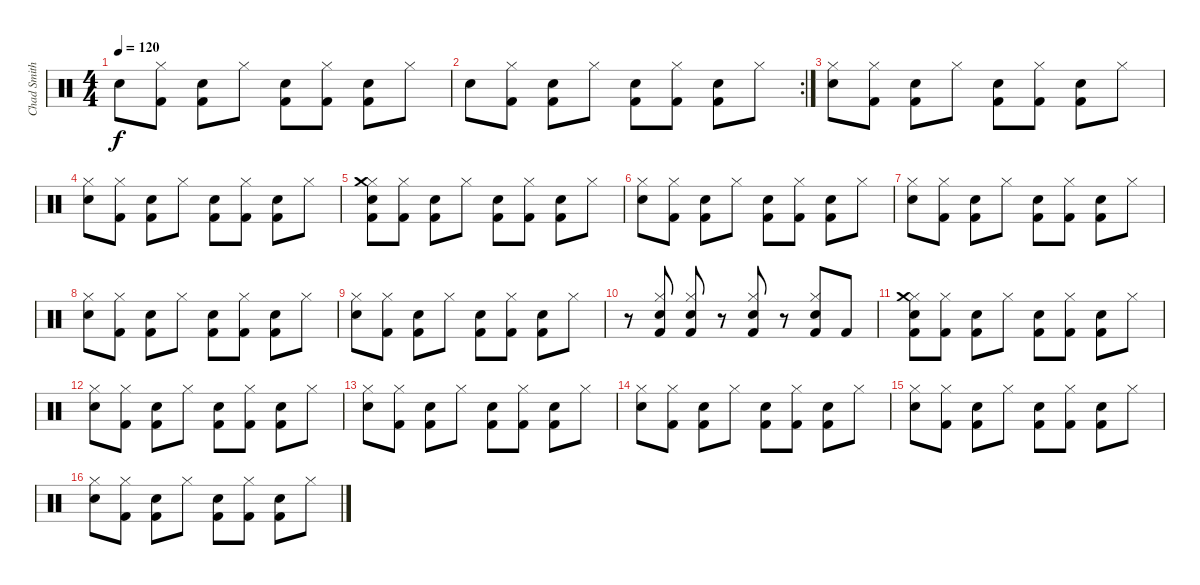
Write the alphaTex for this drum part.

\track ("Chad Smith" "Chad Smith") {instrument percussion}
\staff {score}
\articulation defaults
\ts (4 4)
\tempo 120
\clef neutral
\ks c "Electric Snare (hit)".8{dy f}
("Hi-Hat (closed)" "Kick (hit) 2").8 ("Electric Snare (hit)" "Kick (hit) 2").8 "Hi-Hat (closed)".8 ("Electric Snare (hit)" "Kick (hit) 2").8 ("Hi-Hat (closed)" "Kick (hit) 2").8 ("Electric Snare (hit)" "Kick (hit) 2").8 "Hi-Hat (closed)".8 |
\rc 2 "Electric Snare (hit)".8
("Hi-Hat (closed)" "Kick (hit) 2").8 ("Electric Snare (hit)" "Kick (hit) 2").8 "Hi-Hat (closed)".8 ("Electric Snare (hit)" "Kick (hit) 2").8 ("Hi-Hat (closed)" "Kick (hit) 2").8 ("Electric Snare (hit)" "Kick (hit) 2").8 "Hi-Hat (closed)".8 |
("Electric Snare (hit)" "Hi-Hat (closed)").8 ("Hi-Hat (closed)" "Kick (hit) 2").8 ("Electric Snare (hit)" "Kick (hit) 2").8 "Hi-Hat (closed)".8 ("Electric Snare (hit)" "Kick (hit) 2").8 ("Hi-Hat (closed)" "Kick (hit) 2").8 ("Electric Snare (hit)" "Kick (hit) 2").8 "Hi-Hat (closed)".8 |
("Electric Snare (hit)" "Hi-Hat (closed)").8 ("Hi-Hat (closed)" "Kick (hit) 2").8 ("Electric Snare (hit)" "Kick (hit) 2").8 "Hi-Hat (closed)".8 ("Electric Snare (hit)" "Kick (hit) 2").8 ("Hi-Hat (closed)" "Kick (hit) 2").8 ("Electric Snare (hit)" "Kick (hit) 2").8 "Hi-Hat (closed)".8 |
("Electric Snare (hit)" "Hi-Hat (closed)" "Crash medium (hit)" "Kick (hit) 2").8 ("Hi-Hat (closed)" "Kick (hit) 2").8 ("Electric Snare (hit)" "Kick (hit) 2").8 "Hi-Hat (closed)".8 ("Electric Snare (hit)" "Kick (hit) 2").8 ("Hi-Hat (closed)" "Kick (hit) 2").8 ("Electric Snare (hit)" "Kick (hit) 2").8 "Hi-Hat (closed)".8 |
("Electric Snare (hit)" "Hi-Hat (closed)").8 ("Hi-Hat (closed)" "Kick (hit) 2").8 ("Electric Snare (hit)" "Kick (hit) 2").8 "Hi-Hat (closed)".8 ("Electric Snare (hit)" "Kick (hit) 2").8 ("Hi-Hat (closed)" "Kick (hit) 2").8 ("Electric Snare (hit)" "Kick (hit) 2").8 "Hi-Hat (closed)".8 |
("Electric Snare (hit)" "Hi-Hat (closed)").8 ("Hi-Hat (closed)" "Kick (hit) 2").8 ("Electric Snare (hit)" "Kick (hit) 2").8 "Hi-Hat (closed)".8 ("Electric Snare (hit)" "Kick (hit) 2").8 ("Hi-Hat (closed)" "Kick (hit) 2").8 ("Electric Snare (hit)" "Kick (hit) 2").8 "Hi-Hat (closed)".8 |
("Electric Snare (hit)" "Hi-Hat (closed)").8 ("Hi-Hat (closed)" "Kick (hit) 2").8 ("Electric Snare (hit)" "Kick (hit) 2").8 "Hi-Hat (closed)".8 ("Electric Snare (hit)" "Kick (hit) 2").8 ("Hi-Hat (closed)" "Kick (hit) 2").8 ("Electric Snare (hit)" "Kick (hit) 2").8 "Hi-Hat (closed)".8 |
("Electric Snare (hit)" "Hi-Hat (closed)").8 ("Hi-Hat (closed)" "Kick (hit) 2").8 ("Electric Snare (hit)" "Kick (hit) 2").8 "Hi-Hat (closed)".8 ("Electric Snare (hit)" "Kick (hit) 2").8 ("Hi-Hat (closed)" "Kick (hit) 2").8 ("Electric Snare (hit)" "Kick (hit) 2").8 "Hi-Hat (closed)".8 |
r.8 ("Electric Snare (hit)" "Kick (hit) 2" "Hi-Hat (closed)").8 ("Electric Snare (hit)" "Kick (hit) 2" "Hi-Hat (closed)").8 r.8 ("Electric Snare (hit)" "Kick (hit) 2" "Hi-Hat (closed)").8 r.8 ("Electric Snare (hit)" "Kick (hit) 2" "Hi-Hat (closed)").8 "Kick (hit) 2".8 |
("Electric Snare (hit)" "Hi-Hat (closed)" "Crash medium (hit)" "Kick (hit) 2").8 ("Hi-Hat (closed)" "Kick (hit) 2").8 ("Electric Snare (hit)" "Kick (hit) 2").8 "Hi-Hat (closed)".8 ("Electric Snare (hit)" "Kick (hit) 2").8 ("Hi-Hat (closed)" "Kick (hit) 2").8 ("Electric Snare (hit)" "Kick (hit) 2").8 "Hi-Hat (closed)".8 |
("Electric Snare (hit)" "Hi-Hat (closed)").8 ("Hi-Hat (closed)" "Kick (hit) 2").8 ("Electric Snare (hit)" "Kick (hit) 2").8 "Hi-Hat (closed)".8 ("Electric Snare (hit)" "Kick (hit) 2").8 ("Hi-Hat (closed)" "Kick (hit) 2").8 ("Electric Snare (hit)" "Kick (hit) 2").8 "Hi-Hat (closed)".8 |
("Electric Snare (hit)" "Hi-Hat (closed)").8 ("Hi-Hat (closed)" "Kick (hit) 2").8 ("Electric Snare (hit)" "Kick (hit) 2").8 "Hi-Hat (closed)".8 ("Electric Snare (hit)" "Kick (hit) 2").8 ("Hi-Hat (closed)" "Kick (hit) 2").8 ("Electric Snare (hit)" "Kick (hit) 2").8 "Hi-Hat (closed)".8 |
("Electric Snare (hit)" "Hi-Hat (closed)").8 ("Hi-Hat (closed)" "Kick (hit) 2").8 ("Electric Snare (hit)" "Kick (hit) 2").8 "Hi-Hat (closed)".8 ("Electric Snare (hit)" "Kick (hit) 2").8 ("Hi-Hat (closed)" "Kick (hit) 2").8 ("Electric Snare (hit)" "Kick (hit) 2").8 "Hi-Hat (closed)".8 |
("Electric Snare (hit)" "Hi-Hat (closed)").8 ("Hi-Hat (closed)" "Kick (hit) 2").8 ("Electric Snare (hit)" "Kick (hit) 2").8 "Hi-Hat (closed)".8 ("Electric Snare (hit)" "Kick (hit) 2").8 ("Hi-Hat (closed)" "Kick (hit) 2").8 ("Electric Snare (hit)" "Kick (hit) 2").8 "Hi-Hat (closed)".8 |
("Electric Snare (hit)" "Hi-Hat (closed)").8 ("Hi-Hat (closed)" "Kick (hit) 2").8 ("Electric Snare (hit)" "Kick (hit) 2").8 "Hi-Hat (closed)".8 ("Electric Snare (hit)" "Kick (hit) 2").8 ("Hi-Hat (closed)" "Kick (hit) 2").8 ("Electric Snare (hit)" "Kick (hit) 2").8 "Hi-Hat (closed)".8
